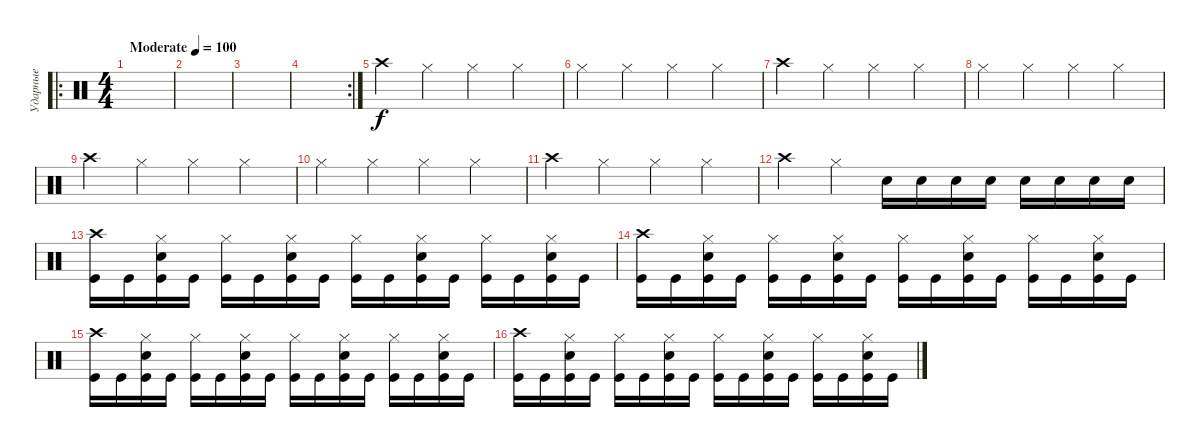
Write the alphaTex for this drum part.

\track ("Ударные" "Ударные") {instrument percussion}
\staff {score}
\articulation defaults
\ro
\ts (4 4)
\tempo (100 "Moderate")
\clef neutral
\ks c
|
|
|
\rc 2
|
"Crash high (hit)".4 "Hi-Hat (closed)".4 "Hi-Hat (closed)".4 "Hi-Hat (closed)".4 |
"Hi-Hat (closed)".4 "Hi-Hat (closed)".4 "Hi-Hat (closed)".4 "Hi-Hat (closed)".4 |
"Crash high (hit)".4 "Hi-Hat (closed)".4 "Hi-Hat (closed)".4 "Hi-Hat (closed)".4 |
"Hi-Hat (closed)".4 "Hi-Hat (closed)".4 "Hi-Hat (closed)".4 "Hi-Hat (closed)".4 |
"Crash high (hit)".4 "Hi-Hat (closed)".4 "Hi-Hat (closed)".4 "Hi-Hat (closed)".4 |
"Hi-Hat (closed)".4 "Hi-Hat (closed)".4 "Hi-Hat (closed)".4 "Hi-Hat (closed)".4 |
"Crash high (hit)".4 "Hi-Hat (closed)".4 "Hi-Hat (closed)".4 "Hi-Hat (closed)".4 |
"Crash high (hit)".4 "Hi-Hat (closed)".4 "Snare (hit) 2".16 "Snare (hit) 2".16 "Snare (hit) 2".16 "Snare (hit) 2".16 "Snare (hit) 2".16 "Snare (hit) 2".16 "Snare (hit) 2".16 "Snare (hit) 2".16 |
("Kick (hit)" "Crash high (hit)").16 "Kick (hit)".16 ("Kick (hit)" "Hi-Hat (closed)" "Snare (hit) 2").16 "Kick (hit)".16 ("Kick (hit)" "Hi-Hat (closed)").16 "Kick (hit)".16 ("Kick (hit)" "Hi-Hat (closed)" "Snare (hit) 2").16 "Kick (hit)".16 ("Kick (hit)" "Hi-Hat (closed)").16 "Kick (hit)".16 ("Kick (hit)" "Hi-Hat (closed)" "Snare (hit) 2").16 "Kick (hit)".16 ("Kick (hit)" "Hi-Hat (closed)").16 "Kick (hit)".16 ("Kick (hit)" "Hi-Hat (closed)" "Snare (hit) 2").16 "Kick (hit)".16 |
("Kick (hit)" "Crash high (hit)").16 "Kick (hit)".16 ("Kick (hit)" "Hi-Hat (closed)" "Snare (hit) 2").16 "Kick (hit)".16 ("Kick (hit)" "Hi-Hat (closed)").16 "Kick (hit)".16 ("Kick (hit)" "Hi-Hat (closed)" "Snare (hit) 2").16 "Kick (hit)".16 ("Kick (hit)" "Hi-Hat (closed)").16 "Kick (hit)".16 ("Kick (hit)" "Hi-Hat (closed)" "Snare (hit) 2").16 "Kick (hit)".16 ("Kick (hit)" "Hi-Hat (closed)").16 "Kick (hit)".16 ("Kick (hit)" "Hi-Hat (closed)" "Snare (hit) 2").16 "Kick (hit)".16 |
("Kick (hit)" "Crash high (hit)").16 "Kick (hit)".16 ("Kick (hit)" "Hi-Hat (closed)" "Snare (hit) 2").16 "Kick (hit)".16 ("Kick (hit)" "Hi-Hat (closed)").16 "Kick (hit)".16 ("Kick (hit)" "Hi-Hat (closed)" "Snare (hit) 2").16 "Kick (hit)".16 ("Kick (hit)" "Hi-Hat (closed)").16 "Kick (hit)".16 ("Kick (hit)" "Hi-Hat (closed)" "Snare (hit) 2").16 "Kick (hit)".16 ("Kick (hit)" "Hi-Hat (closed)").16 "Kick (hit)".16 ("Kick (hit)" "Hi-Hat (closed)" "Snare (hit) 2").16 "Kick (hit)".16 |
("Kick (hit)" "Crash high (hit)").16 "Kick (hit)".16 ("Kick (hit)" "Hi-Hat (closed)" "Snare (hit) 2").16 "Kick (hit)".16 ("Kick (hit)" "Hi-Hat (closed)").16 "Kick (hit)".16 ("Kick (hit)" "Hi-Hat (closed)" "Snare (hit) 2").16 "Kick (hit)".16 ("Kick (hit)" "Hi-Hat (closed)").16 "Kick (hit)".16 ("Kick (hit)" "Hi-Hat (closed)" "Snare (hit) 2").16 "Kick (hit)".16 ("Kick (hit)" "Hi-Hat (closed)").16 "Kick (hit)".16 ("Kick (hit)" "Hi-Hat (closed)" "Snare (hit) 2").16 "Kick (hit)".16
